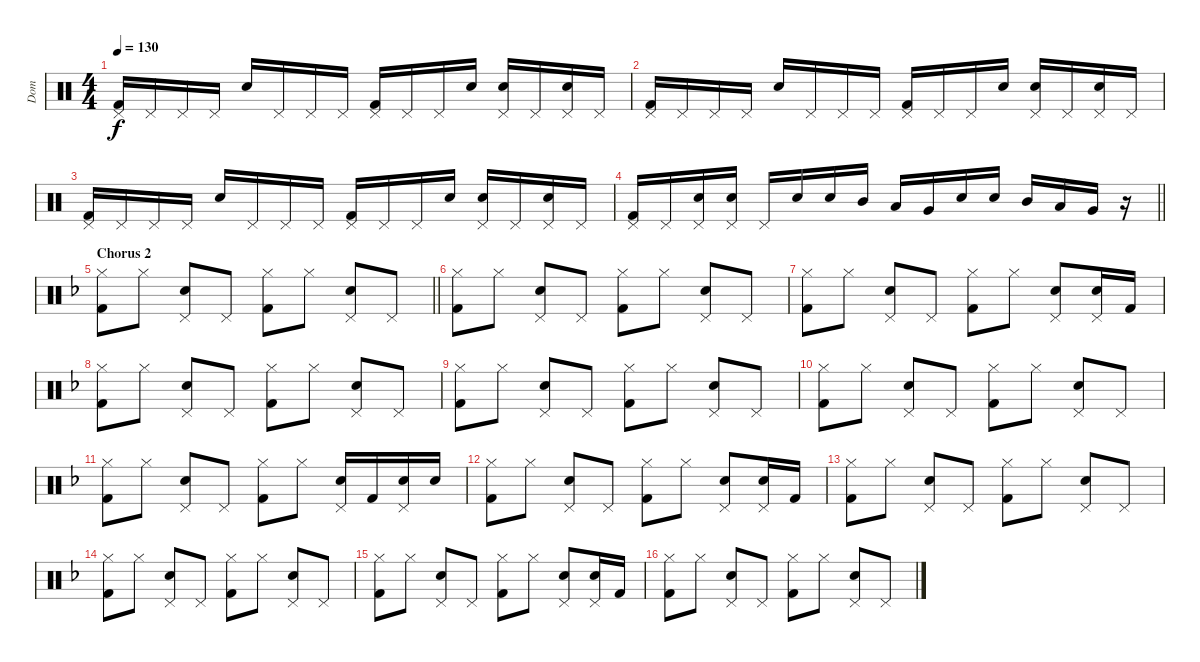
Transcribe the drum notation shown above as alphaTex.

\track ("Dom" "Dom") {instrument percussion}
\staff {score}
\articulation defaults
\ts (4 4)
\tempo 130
\clef neutral
\ks c
("Pedal Hi-Hat (hit)" "Kick (hit) 2").16{dy f} "Pedal Hi-Hat (hit)".16 "Pedal Hi-Hat (hit)".16 "Pedal Hi-Hat (hit)".16 "Electric Snare (hit)".16 "Pedal Hi-Hat (hit)".16 "Pedal Hi-Hat (hit)".16 "Pedal Hi-Hat (hit)".16 ("Pedal Hi-Hat (hit)" "Kick (hit) 2").16 "Pedal Hi-Hat (hit)".16 "Pedal Hi-Hat (hit)".16 "Electric Snare (hit)".16 ("Pedal Hi-Hat (hit)" "Electric Snare (hit)").16 "Pedal Hi-Hat (hit)".16 ("Pedal Hi-Hat (hit)" "Electric Snare (hit)").16 "Pedal Hi-Hat (hit)".16 |
("Pedal Hi-Hat (hit)" "Kick (hit) 2").16 "Pedal Hi-Hat (hit)".16 "Pedal Hi-Hat (hit)".16 "Pedal Hi-Hat (hit)".16 "Electric Snare (hit)".16 "Pedal Hi-Hat (hit)".16 "Pedal Hi-Hat (hit)".16 "Pedal Hi-Hat (hit)".16 ("Pedal Hi-Hat (hit)" "Kick (hit) 2").16 "Pedal Hi-Hat (hit)".16 "Pedal Hi-Hat (hit)".16 "Electric Snare (hit)".16 ("Pedal Hi-Hat (hit)" "Electric Snare (hit)").16 "Pedal Hi-Hat (hit)".16 ("Pedal Hi-Hat (hit)" "Electric Snare (hit)").16 "Pedal Hi-Hat (hit)".16 |
("Pedal Hi-Hat (hit)" "Kick (hit) 2").16 "Pedal Hi-Hat (hit)".16 "Pedal Hi-Hat (hit)".16 "Pedal Hi-Hat (hit)".16 "Electric Snare (hit)".16 "Pedal Hi-Hat (hit)".16 "Pedal Hi-Hat (hit)".16 "Pedal Hi-Hat (hit)".16 ("Pedal Hi-Hat (hit)" "Kick (hit) 2").16 "Pedal Hi-Hat (hit)".16 "Pedal Hi-Hat (hit)".16 "Electric Snare (hit)".16 ("Pedal Hi-Hat (hit)" "Electric Snare (hit)").16 "Pedal Hi-Hat (hit)".16 ("Pedal Hi-Hat (hit)" "Electric Snare (hit)").16 "Pedal Hi-Hat (hit)".16 |
\barLineRight lightlight
("Pedal Hi-Hat (hit)" "Kick (hit) 2").16 "Pedal Hi-Hat (hit)".16 ("Pedal Hi-Hat (hit)" "Snare (hit) 2").16 ("Pedal Hi-Hat (hit)" "Electric Snare (hit)").16 "Pedal Hi-Hat (hit)".16 "Snare (hit) 2".16 "Electric Snare (hit)".16 "Mid Tom (hit)".16 "Low Tom (hit)".16 "Very Low Tom (hit)".16 "Snare (hit) 2".16 "Electric Snare (hit)".16 "Mid Tom (hit)".16 "Low Tom (hit)".16 "Very Low Tom (hit)".16 r.16 |
\section ("" "Chorus 2")
\barLineRight lightlight
\ks f
("Hi-Hat (closed)" "Kick (hit) 2").8 "Hi-Hat (closed)".8 ("Pedal Hi-Hat (hit)" "Electric Snare (hit)").8 "Pedal Hi-Hat (hit)".8 ("Hi-Hat (closed)" "Kick (hit) 2").8 "Hi-Hat (closed)".8 ("Pedal Hi-Hat (hit)" "Electric Snare (hit)").8 "Pedal Hi-Hat (hit)".8 |
\section ("" "")
("Hi-Hat (closed)" "Kick (hit) 2").8 "Hi-Hat (closed)".8 ("Pedal Hi-Hat (hit)" "Electric Snare (hit)").8 "Pedal Hi-Hat (hit)".8 ("Hi-Hat (closed)" "Kick (hit) 2").8 "Hi-Hat (closed)".8 ("Pedal Hi-Hat (hit)" "Electric Snare (hit)").8 "Pedal Hi-Hat (hit)".8 |
("Hi-Hat (closed)" "Kick (hit) 2").8 "Hi-Hat (closed)".8 ("Pedal Hi-Hat (hit)" "Electric Snare (hit)").8 "Pedal Hi-Hat (hit)".8 ("Hi-Hat (closed)" "Kick (hit) 2").8 "Hi-Hat (closed)".8 ("Pedal Hi-Hat (hit)" "Electric Snare (hit)").8 ("Pedal Hi-Hat (hit)" "Electric Snare (hit)").16 "Kick (hit) 2".16 |
("Hi-Hat (closed)" "Kick (hit) 2").8 "Hi-Hat (closed)".8 ("Pedal Hi-Hat (hit)" "Electric Snare (hit)").8 "Pedal Hi-Hat (hit)".8 ("Hi-Hat (closed)" "Kick (hit) 2").8 "Hi-Hat (closed)".8 ("Pedal Hi-Hat (hit)" "Electric Snare (hit)").8 "Pedal Hi-Hat (hit)".8 |
("Hi-Hat (closed)" "Kick (hit) 2").8 "Hi-Hat (closed)".8 ("Pedal Hi-Hat (hit)" "Electric Snare (hit)").8 "Pedal Hi-Hat (hit)".8 ("Hi-Hat (closed)" "Kick (hit) 2").8 "Hi-Hat (closed)".8 ("Pedal Hi-Hat (hit)" "Electric Snare (hit)").8 "Pedal Hi-Hat (hit)".8 |
("Hi-Hat (closed)" "Kick (hit) 2").8 "Hi-Hat (closed)".8 ("Pedal Hi-Hat (hit)" "Electric Snare (hit)").8 "Pedal Hi-Hat (hit)".8 ("Hi-Hat (closed)" "Kick (hit) 2").8 "Hi-Hat (closed)".8 ("Pedal Hi-Hat (hit)" "Electric Snare (hit)").8 "Pedal Hi-Hat (hit)".8 |
("Hi-Hat (closed)" "Kick (hit) 2").8 "Hi-Hat (closed)".8 ("Pedal Hi-Hat (hit)" "Electric Snare (hit)").8 "Pedal Hi-Hat (hit)".8 ("Hi-Hat (closed)" "Kick (hit) 2").8 "Hi-Hat (closed)".8 ("Pedal Hi-Hat (hit)" "Electric Snare (hit)").16 "Kick (hit) 2".16 ("Pedal Hi-Hat (hit)" "Electric Snare (hit)").16 "Electric Snare (hit)".16 |
("Hi-Hat (closed)" "Kick (hit) 2").8 "Hi-Hat (closed)".8 ("Pedal Hi-Hat (hit)" "Electric Snare (hit)").8 "Pedal Hi-Hat (hit)".8 ("Hi-Hat (closed)" "Kick (hit) 2").8 "Hi-Hat (closed)".8 ("Pedal Hi-Hat (hit)" "Electric Snare (hit)").8 ("Pedal Hi-Hat (hit)" "Electric Snare (hit)").16 "Kick (hit) 2".16 |
("Hi-Hat (closed)" "Kick (hit) 2").8 "Hi-Hat (closed)".8 ("Pedal Hi-Hat (hit)" "Electric Snare (hit)").8 "Pedal Hi-Hat (hit)".8 ("Hi-Hat (closed)" "Kick (hit) 2").8 "Hi-Hat (closed)".8 ("Pedal Hi-Hat (hit)" "Electric Snare (hit)").8 "Pedal Hi-Hat (hit)".8 |
("Hi-Hat (closed)" "Kick (hit) 2").8 "Hi-Hat (closed)".8 ("Pedal Hi-Hat (hit)" "Electric Snare (hit)").8 "Pedal Hi-Hat (hit)".8 ("Hi-Hat (closed)" "Kick (hit) 2").8 "Hi-Hat (closed)".8 ("Pedal Hi-Hat (hit)" "Electric Snare (hit)").8 "Pedal Hi-Hat (hit)".8 |
("Hi-Hat (closed)" "Kick (hit) 2").8 "Hi-Hat (closed)".8 ("Pedal Hi-Hat (hit)" "Electric Snare (hit)").8 "Pedal Hi-Hat (hit)".8 ("Hi-Hat (closed)" "Kick (hit) 2").8 "Hi-Hat (closed)".8 ("Pedal Hi-Hat (hit)" "Electric Snare (hit)").8 ("Pedal Hi-Hat (hit)" "Electric Snare (hit)").16 "Kick (hit) 2".16 |
("Hi-Hat (closed)" "Kick (hit) 2").8 "Hi-Hat (closed)".8 ("Pedal Hi-Hat (hit)" "Electric Snare (hit)").8 "Pedal Hi-Hat (hit)".8 ("Hi-Hat (closed)" "Kick (hit) 2").8 "Hi-Hat (closed)".8 ("Pedal Hi-Hat (hit)" "Electric Snare (hit)").8 "Pedal Hi-Hat (hit)".8
